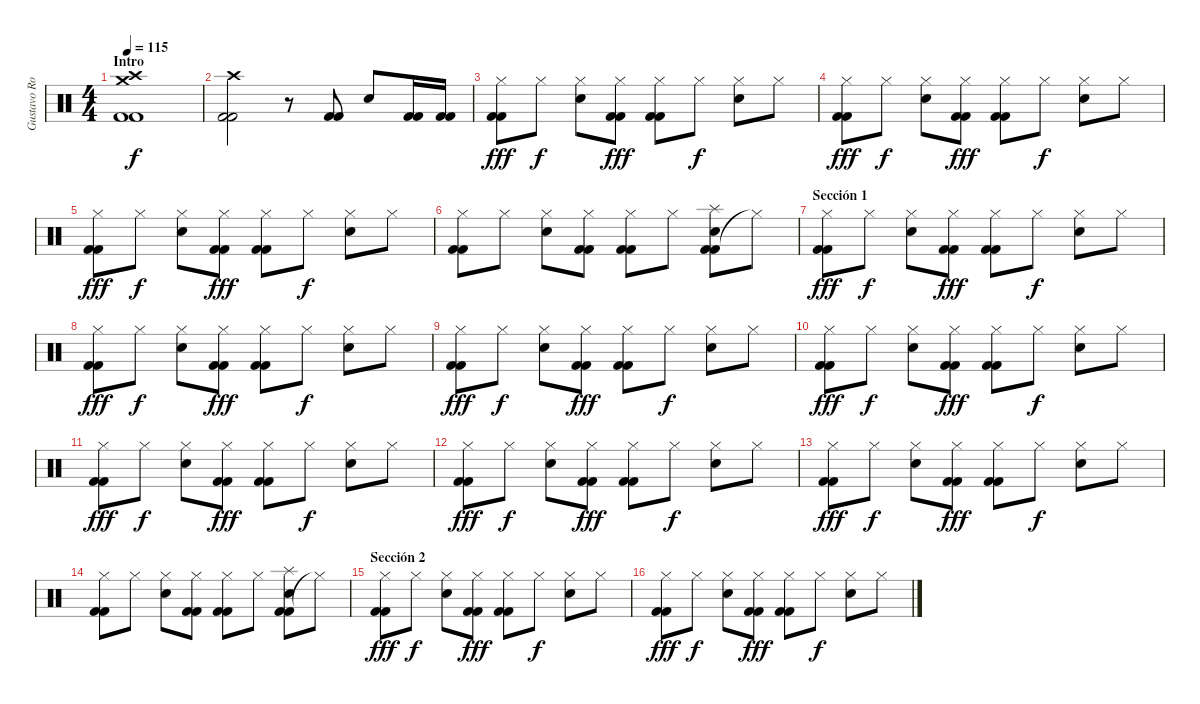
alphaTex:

\track ("Gustavo Rowek" "Gustavo Ro") {instrument percussion}
\staff {score}
\articulation defaults
\ts (4 4)
\section ("" "Intro")
\tempo 115
\clef neutral
\ks c
("Kick (hit) 2" "Kick (hit) 2" "Crash high (hit)" "Crash medium (hit)").1{dy f} |
("Kick (hit) 2" "Kick (hit) 2" "Crash high (hit)").2 r.8 ("Kick (hit) 2" "Kick (hit) 2").8 "Snare (hit) 2".8 ("Kick (hit) 2" "Kick (hit) 2").16 ("Kick (hit) 2" "Kick (hit) 2").16 |
("Kick (hit) 2" "Kick (hit) 2" "Hi-Hat (closed)").8{dy fff} "Hi-Hat (closed)".8{dy f} ("Snare (hit) 2" "Hi-Hat (closed)").8 ("Kick (hit) 2" "Kick (hit) 2" "Hi-Hat (closed)").8{dy fff} ("Kick (hit) 2" "Kick (hit) 2" "Hi-Hat (closed)").8 "Hi-Hat (closed)".8{dy f} ("Snare (hit) 2" "Hi-Hat (closed)").8 "Hi-Hat (closed)".8 |
("Kick (hit) 2" "Kick (hit) 2" "Hi-Hat (closed)").8{dy fff} "Hi-Hat (closed)".8{dy f} ("Snare (hit) 2" "Hi-Hat (closed)").8 ("Kick (hit) 2" "Kick (hit) 2" "Hi-Hat (closed)").8{dy fff} ("Kick (hit) 2" "Kick (hit) 2" "Hi-Hat (closed)").8 "Hi-Hat (closed)".8{dy f} ("Snare (hit) 2" "Hi-Hat (closed)").8 "Hi-Hat (closed)".8 |
("Kick (hit) 2" "Kick (hit) 2" "Hi-Hat (closed)").8{dy fff} "Hi-Hat (closed)".8{dy f} ("Snare (hit) 2" "Hi-Hat (closed)").8 ("Kick (hit) 2" "Kick (hit) 2" "Hi-Hat (closed)").8{dy fff} ("Kick (hit) 2" "Kick (hit) 2" "Hi-Hat (closed)").8 "Hi-Hat (closed)".8{dy f} ("Snare (hit) 2" "Hi-Hat (closed)").8 "Hi-Hat (closed)".8 |
("Kick (hit) 2" "Kick (hit) 2" "Hi-Hat (closed)").8 "Hi-Hat (closed)".8 ("Snare (hit) 2" "Hi-Hat (closed)").8 ("Kick (hit) 2" "Kick (hit) 2" "Hi-Hat (closed)").8 ("Kick (hit) 2" "Kick (hit) 2" "Hi-Hat (closed)").8 "Hi-Hat (closed)".8 ("Kick (hit) 2" "Kick (hit) 2" "Snare (hit) 2" "Splash (hit)").8 "Hi-Hat (closed)"{t}.8 |
\section ("" "Sección 1")
("Kick (hit) 2" "Kick (hit) 2" "Hi-Hat (closed)").8{dy fff} "Hi-Hat (closed)".8{dy f} ("Snare (hit) 2" "Hi-Hat (closed)").8 ("Kick (hit) 2" "Kick (hit) 2" "Hi-Hat (closed)").8{dy fff} ("Kick (hit) 2" "Kick (hit) 2" "Hi-Hat (closed)").8 "Hi-Hat (closed)".8{dy f} ("Snare (hit) 2" "Hi-Hat (closed)").8 "Hi-Hat (closed)".8 |
("Kick (hit) 2" "Kick (hit) 2" "Hi-Hat (closed)").8{dy fff} "Hi-Hat (closed)".8{dy f} ("Snare (hit) 2" "Hi-Hat (closed)").8 ("Kick (hit) 2" "Kick (hit) 2" "Hi-Hat (closed)").8{dy fff} ("Kick (hit) 2" "Kick (hit) 2" "Hi-Hat (closed)").8 "Hi-Hat (closed)".8{dy f} ("Snare (hit) 2" "Hi-Hat (closed)").8 "Hi-Hat (closed)".8 |
("Kick (hit) 2" "Kick (hit) 2" "Hi-Hat (closed)").8{dy fff} "Hi-Hat (closed)".8{dy f} ("Snare (hit) 2" "Hi-Hat (closed)").8 ("Kick (hit) 2" "Kick (hit) 2" "Hi-Hat (closed)").8{dy fff} ("Kick (hit) 2" "Kick (hit) 2" "Hi-Hat (closed)").8 "Hi-Hat (closed)".8{dy f} ("Snare (hit) 2" "Hi-Hat (closed)").8 "Hi-Hat (closed)".8 |
("Kick (hit) 2" "Kick (hit) 2" "Hi-Hat (closed)").8{dy fff} "Hi-Hat (closed)".8{dy f} ("Snare (hit) 2" "Hi-Hat (closed)").8 ("Kick (hit) 2" "Kick (hit) 2" "Hi-Hat (closed)").8{dy fff} ("Kick (hit) 2" "Kick (hit) 2" "Hi-Hat (closed)").8 "Hi-Hat (closed)".8{dy f} ("Snare (hit) 2" "Hi-Hat (closed)").8 "Hi-Hat (closed)".8 |
("Kick (hit) 2" "Kick (hit) 2" "Hi-Hat (closed)").8{dy fff} "Hi-Hat (closed)".8{dy f} ("Snare (hit) 2" "Hi-Hat (closed)").8 ("Kick (hit) 2" "Kick (hit) 2" "Hi-Hat (closed)").8{dy fff} ("Kick (hit) 2" "Kick (hit) 2" "Hi-Hat (closed)").8 "Hi-Hat (closed)".8{dy f} ("Snare (hit) 2" "Hi-Hat (closed)").8 "Hi-Hat (closed)".8 |
("Kick (hit) 2" "Kick (hit) 2" "Hi-Hat (closed)").8{dy fff} "Hi-Hat (closed)".8{dy f} ("Snare (hit) 2" "Hi-Hat (closed)").8 ("Kick (hit) 2" "Kick (hit) 2" "Hi-Hat (closed)").8{dy fff} ("Kick (hit) 2" "Kick (hit) 2" "Hi-Hat (closed)").8 "Hi-Hat (closed)".8{dy f} ("Snare (hit) 2" "Hi-Hat (closed)").8 "Hi-Hat (closed)".8 |
("Kick (hit) 2" "Kick (hit) 2" "Hi-Hat (closed)").8{dy fff} "Hi-Hat (closed)".8{dy f} ("Snare (hit) 2" "Hi-Hat (closed)").8 ("Kick (hit) 2" "Kick (hit) 2" "Hi-Hat (closed)").8{dy fff} ("Kick (hit) 2" "Kick (hit) 2" "Hi-Hat (closed)").8 "Hi-Hat (closed)".8{dy f} ("Snare (hit) 2" "Hi-Hat (closed)").8 "Hi-Hat (closed)".8 |
("Kick (hit) 2" "Kick (hit) 2" "Hi-Hat (closed)").8 "Hi-Hat (closed)".8 ("Snare (hit) 2" "Hi-Hat (closed)").8 ("Kick (hit) 2" "Kick (hit) 2" "Hi-Hat (closed)").8 ("Kick (hit) 2" "Kick (hit) 2" "Hi-Hat (closed)").8 "Hi-Hat (closed)".8 ("Kick (hit) 2" "Kick (hit) 2" "Snare (hit) 2" "Splash (hit)").8 "Hi-Hat (closed)"{t}.8 |
\section ("" "Sección 2")
("Kick (hit) 2" "Kick (hit) 2" "Hi-Hat (closed)").8{dy fff} "Hi-Hat (closed)".8{dy f} ("Snare (hit) 2" "Hi-Hat (closed)").8 ("Kick (hit) 2" "Kick (hit) 2" "Hi-Hat (closed)").8{dy fff} ("Kick (hit) 2" "Kick (hit) 2" "Hi-Hat (closed)").8 "Hi-Hat (closed)".8{dy f} ("Snare (hit) 2" "Hi-Hat (closed)").8 "Hi-Hat (closed)".8 |
("Kick (hit) 2" "Kick (hit) 2" "Hi-Hat (closed)").8{dy fff} "Hi-Hat (closed)".8{dy f} ("Snare (hit) 2" "Hi-Hat (closed)").8 ("Kick (hit) 2" "Kick (hit) 2" "Hi-Hat (closed)").8{dy fff} ("Kick (hit) 2" "Kick (hit) 2" "Hi-Hat (closed)").8 "Hi-Hat (closed)".8{dy f} ("Snare (hit) 2" "Hi-Hat (closed)").8 "Hi-Hat (closed)".8
